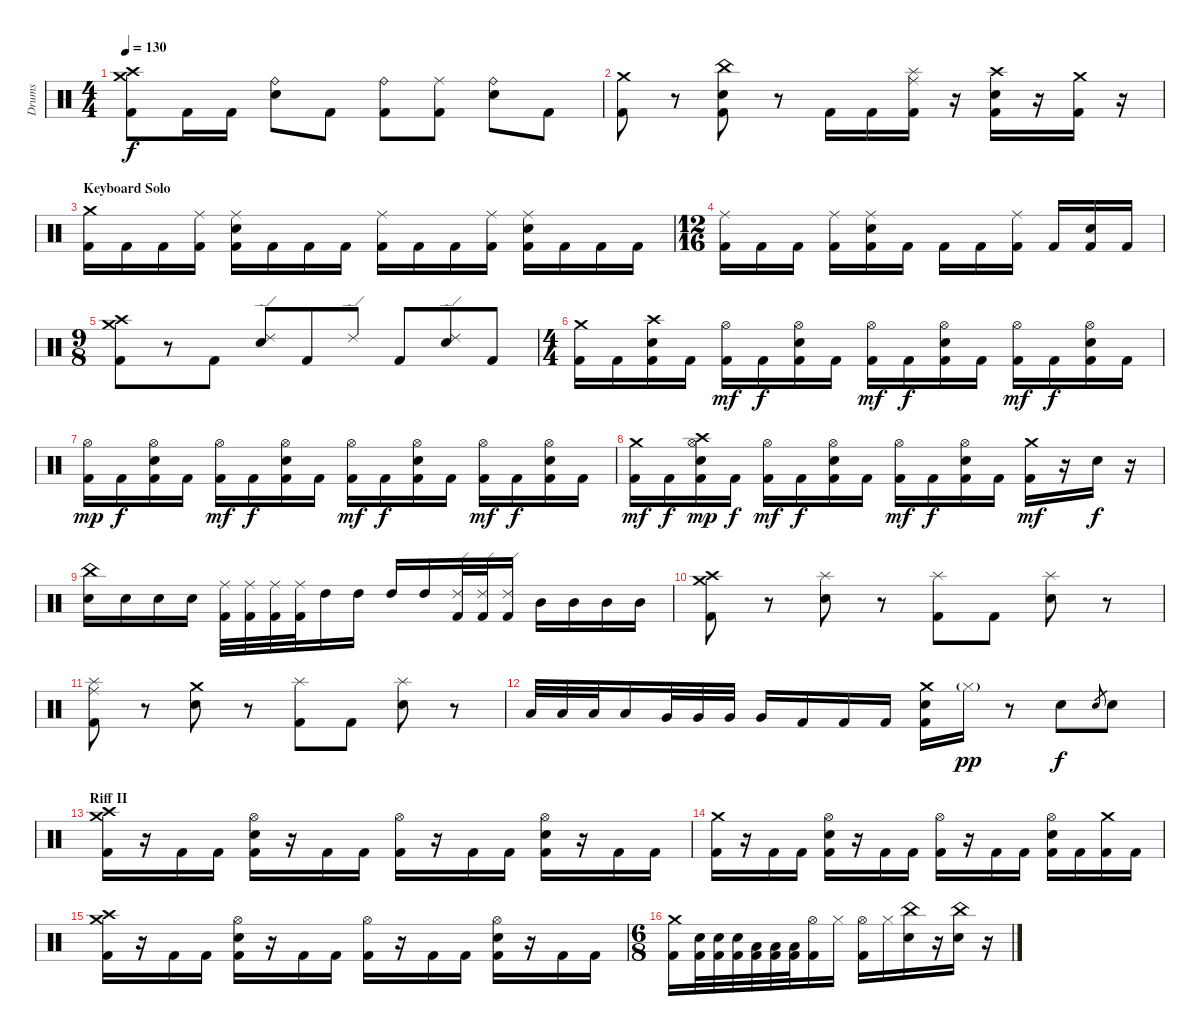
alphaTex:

\track ("Drums" "Drums") {instrument percussion}
\staff {score}
\articulation defaults
\ts (4 4)
\tempo 130
\clef neutral
\ks c
("Crash medium (hit)" "Crash high (hit)" "Kick (hit) 2").8{dy f} "Kick (hit) 2".16 "Kick (hit) 2".16 ("Ride (bell)" "Electric Snare (hit)").8 "Kick (hit) 2".8 ("Ride (bell)" "Kick (hit) 2").8 ("Ride (middle)" "Kick (hit) 2").8 ("Ride (bell)" "Electric Snare (hit)").8 "Kick (hit) 2".8 |
("Crash medium (hit)" "Kick (hit) 2").8 r.8 ("China (hit)" "Electric Snare (hit)" "Kick (hit) 2").8 r.8 "Kick (hit) 2".16 "Kick (hit) 2".16 ("Splash (hit)" "Ride (middle)" "Kick (hit) 2").16 r.16 ("Crash high (hit)" "Electric Snare (hit)" "Kick (hit) 2").16 r.16 ("Crash medium (hit)" "Kick (hit) 2").16 r.16 |
\section ("" "Keyboard Solo")
("Crash medium (hit)" "Kick (hit) 2").16 "Kick (hit) 2".16 "Kick (hit) 2".16 ("Ride (middle)" "Kick (hit) 2").16 ("Ride (middle)" "Electric Snare (hit)" "Kick (hit) 2").16 "Kick (hit) 2".16 "Kick (hit) 2".16 "Kick (hit) 2".16 ("Ride (middle)" "Kick (hit) 2").16 "Kick (hit) 2".16 "Kick (hit) 2".16 ("Ride (middle)" "Kick (hit) 2").16 ("Ride (middle)" "Electric Snare (hit)" "Kick (hit) 2").16 "Kick (hit) 2".16 "Kick (hit) 2".16 "Kick (hit) 2".16 |
\ts (12 16)
("Ride (middle)" "Kick (hit) 2").16 "Kick (hit) 2".16 "Kick (hit) 2".16 ("Ride (middle)" "Kick (hit) 2").16 ("Ride (middle)" "Electric Snare (hit)" "Kick (hit) 2").16 "Kick (hit) 2".16 "Kick (hit) 2".16 "Kick (hit) 2".16 ("Ride (middle)" "Kick (hit) 2").16 "Kick (hit) 2".16 ("Electric Snare (hit)" "Kick (hit) 2").16 "Kick (hit) 2".16 |
\ts (9 8)
("Crash high (hit)" "Crash medium (hit)" "Kick (hit) 2").8 r.8 "Kick (hit) 2".8 ("Ride (edge) 2" "Electric Snare (hit)").8 "Kick (hit) 2".8 "Ride (edge) 2".8 "Kick (hit) 2".8 ("Ride (edge) 2" "Electric Snare (hit)").8 "Kick (hit) 2".8 |
\ts (4 4)
("Crash medium (hit)" "Kick (hit) 2").16 "Kick (hit) 2".16 ("Crash high (hit)" "Electric Snare (hit)" "Kick (hit) 2").16 "Kick (hit) 2".16 ("Hi-Hat (open)" "Kick (hit) 2").16{dy mf} "Kick (hit) 2".16{dy f} ("Hi-Hat (open)" "Electric Snare (hit)" "Kick (hit) 2").16 "Kick (hit) 2".16 ("Hi-Hat (open)" "Kick (hit) 2").16{dy mf} "Kick (hit) 2".16{dy f} ("Hi-Hat (open)" "Electric Snare (hit)" "Kick (hit) 2").16 "Kick (hit) 2".16 ("Hi-Hat (open)" "Kick (hit) 2").16{dy mf} "Kick (hit) 2".16{dy f} ("Hi-Hat (open)" "Electric Snare (hit)" "Kick (hit) 2").16 "Kick (hit) 2".16 |
("Hi-Hat (open)" "Kick (hit) 2").16{dy mp} "Kick (hit) 2".16{dy f} ("Hi-Hat (open)" "Electric Snare (hit)" "Kick (hit) 2").16 "Kick (hit) 2".16 ("Hi-Hat (open)" "Kick (hit) 2").16{dy mf} "Kick (hit) 2".16{dy f} ("Hi-Hat (open)" "Electric Snare (hit)" "Kick (hit) 2").16 "Kick (hit) 2".16 ("Hi-Hat (open)" "Kick (hit) 2").16{dy mf} "Kick (hit) 2".16{dy f} ("Hi-Hat (open)" "Electric Snare (hit)" "Kick (hit) 2").16 "Kick (hit) 2".16 ("Hi-Hat (open)" "Kick (hit) 2").16{dy mf} "Kick (hit) 2".16{dy f} ("Hi-Hat (open)" "Electric Snare (hit)" "Kick (hit) 2").16 "Kick (hit) 2".16 |
("Crash medium (hit)" "Kick (hit) 2").16{dy mf} "Kick (hit) 2".16{dy f} ("Crash high (hit)" "Hi-Hat (open)" "Electric Snare (hit)" "Kick (hit) 2").16{dy mp} "Kick (hit) 2".16{dy f} ("Hi-Hat (open)" "Kick (hit) 2").16{dy mf} "Kick (hit) 2".16{dy f} ("Hi-Hat (open)" "Electric Snare (hit)" "Kick (hit) 2").16 "Kick (hit) 2".16 ("Hi-Hat (open)" "Kick (hit) 2").16{dy mf} "Kick (hit) 2".16{dy f} ("Hi-Hat (open)" "Electric Snare (hit)" "Kick (hit) 2").16 "Kick (hit) 2".16 ("Crash medium (hit)" "Kick (hit) 2").16{dy mf} r.16 "Electric Snare (hit)".16{dy f} r.16 |
("China (hit)" "Electric Snare (hit)").16 "Electric Snare (hit)".16 "Electric Snare (hit)".16 "Electric Snare (hit)".16 ("Ride (middle)" "Kick (hit) 2").32 ("Ride (middle)" "Kick (hit) 2").32 ("Ride (middle)" "Kick (hit) 2").32 ("Ride (middle)" "Kick (hit) 2").32 "High Tom (hit)".16 "High Tom (hit)".16 "High Tom (hit)".16 "High Tom (hit)".16 ("Ride (edge) 2" "Kick (hit) 2").32 ("Ride (edge) 2" "Kick (hit) 2").32 ("Ride (edge) 2" "Kick (hit) 2").16 "Mid Tom (hit)".16 "Mid Tom (hit)".16 "Mid Tom (hit)".16 "Mid Tom (hit)".16 |
("Crash medium (hit)" "Crash high (hit)" "Kick (hit) 2").8 r.8 ("Splash (hit)" "Electric Snare (hit)").8 r.8 ("Splash (hit)" "Kick (hit) 2").8 "Kick (hit) 2".8 ("Splash (hit)" "Electric Snare (hit)").8 r.8 |
("Ride (middle)" "Splash (hit)" "Kick (hit) 2").8 r.8 ("Crash medium (hit)" "Electric Snare (hit)").8 r.8 ("Splash (hit)" "Kick (hit) 2").8 "Kick (hit) 2".8 ("Splash (hit)" "Electric Snare (hit)").8 r.8 |
"Low Tom (hit)".32 "Low Tom (hit)".32 "Low Tom (hit)".32 "Low Tom (hit)".16 "Very Low Tom (hit)".32 "Very Low Tom (hit)".32 "Very Low Tom (hit)".32 "Very Low Tom (hit)".16 "Kick (hit) 2".16 "Kick (hit) 2".16 "Kick (hit) 2".16 ("Crash medium (hit)" "Electric Snare (hit)" "Kick (hit) 2").16 "Hi-Hat (closed)"{g}.16{dy pp} r.8 "Electric Snare (hit)".8{dy f} "Electric Snare (hit)".8{gr} "Electric Snare (hit)".8 |
\section ("" "Riff II")
("Crash medium (hit)" "Crash high (hit)" "Kick (hit) 2").16 r.16 "Kick (hit) 2".16 "Kick (hit) 2".16 ("Hi-Hat (open)" "Electric Snare (hit)" "Kick (hit) 2").16 r.16 "Kick (hit) 2".16 "Kick (hit) 2".16 ("Hi-Hat (open)" "Kick (hit) 2").16 r.16 "Kick (hit) 2".16 "Kick (hit) 2".16 ("Hi-Hat (open)" "Electric Snare (hit)" "Kick (hit) 2").16 r.16 "Kick (hit) 2".16 "Kick (hit) 2".16 |
("Crash medium (hit)" "Kick (hit) 2").16 r.16 "Kick (hit) 2".16 "Kick (hit) 2".16 ("Hi-Hat (open)" "Electric Snare (hit)" "Kick (hit) 2").16 r.16 "Kick (hit) 2".16 "Kick (hit) 2".16 ("Hi-Hat (open)" "Kick (hit) 2").16 r.16 "Kick (hit) 2".16 "Kick (hit) 2".16 ("Hi-Hat (open)" "Electric Snare (hit)" "Kick (hit) 2").16 "Kick (hit) 2".16 ("Crash medium (hit)" "Kick (hit) 2").16 "Kick (hit) 2".16 |
("Crash medium (hit)" "Crash high (hit)" "Kick (hit) 2").16 r.16 "Kick (hit) 2".16 "Kick (hit) 2".16 ("Hi-Hat (open)" "Electric Snare (hit)" "Kick (hit) 2").16 r.16 "Kick (hit) 2".16 "Kick (hit) 2".16 ("Hi-Hat (open)" "Kick (hit) 2").16 r.16 "Kick (hit) 2".16 "Kick (hit) 2".16 ("Hi-Hat (open)" "Electric Snare (hit)" "Kick (hit) 2").16 r.16 "Kick (hit) 2".16 "Kick (hit) 2".16 |
\ts (6 8)
("Crash medium (hit)" "Kick (hit) 2").16 ("Electric Snare (hit)" "Kick (hit) 2").32 ("Electric Snare (hit)" "Kick (hit) 2").32 ("Electric Snare (hit)" "Kick (hit) 2").32 ("Low Floor Tom (hit)" "Kick (hit) 2").32 ("Low Floor Tom (hit)" "Kick (hit) 2").32 ("Low Floor Tom (hit)" "Kick (hit) 2").32 ("Hi-Hat (open)" "Kick (hit) 2").16 "Hi-Hat (closed)".16 ("Hi-Hat (open)" "Kick (hit) 2").16 "Hi-Hat (closed)".16 ("China (hit)" "Electric Snare (hit)").16 r.16 ("China (hit)" "Electric Snare (hit)").16 r.16
